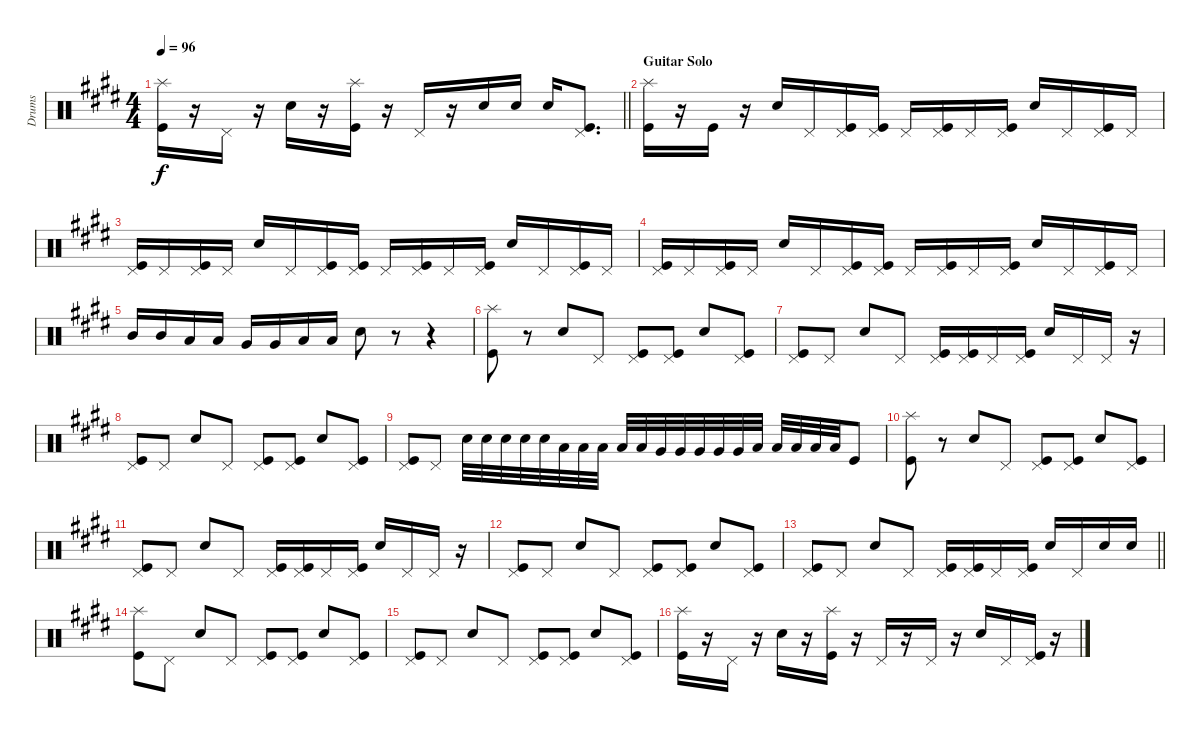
\track ("Drums" "Drums") {instrument percussion}
\staff {score}
\articulation defaults
\ts (4 4)
\tempo 96
\clef neutral
\barLineRight lightlight
\ks e
("Kick (hit)" "Splash (hit)").16{dy f} r.16 "Pedal Hi-Hat (hit)".16 r.16 "Electric Snare (hit)".16 r.16 ("Kick (hit)" "Splash (hit)").16 r.16 "Pedal Hi-Hat (hit)".16 r.16 "Electric Snare (hit)".16 "Electric Snare (hit)".16 "Electric Snare (hit)".16 ("Kick (hit)" "Pedal Hi-Hat (hit)").8{d} |
\section ("" "Guitar Solo")
("Kick (hit)" "Splash (hit)").16 r.16 "Kick (hit)".16 r.16 "Electric Snare (hit)".16 "Pedal Hi-Hat (hit)".16 ("Kick (hit)" "Pedal Hi-Hat (hit)").16 ("Kick (hit)" "Pedal Hi-Hat (hit)").16 "Pedal Hi-Hat (hit)".16 ("Kick (hit)" "Pedal Hi-Hat (hit)").16 "Pedal Hi-Hat (hit)".16 ("Kick (hit)" "Pedal Hi-Hat (hit)").16 "Electric Snare (hit)".16 "Pedal Hi-Hat (hit)".16 ("Kick (hit)" "Pedal Hi-Hat (hit)").16 "Pedal Hi-Hat (hit)".16 |
("Kick (hit)" "Pedal Hi-Hat (hit)").16 "Pedal Hi-Hat (hit)".16 ("Kick (hit)" "Pedal Hi-Hat (hit)").16 "Pedal Hi-Hat (hit)".16 "Electric Snare (hit)".16 "Pedal Hi-Hat (hit)".16 ("Kick (hit)" "Pedal Hi-Hat (hit)").16 ("Kick (hit)" "Pedal Hi-Hat (hit)").16 "Pedal Hi-Hat (hit)".16 ("Kick (hit)" "Pedal Hi-Hat (hit)").16 "Pedal Hi-Hat (hit)".16 ("Kick (hit)" "Pedal Hi-Hat (hit)").16 "Electric Snare (hit)".16 "Pedal Hi-Hat (hit)".16 ("Kick (hit)" "Pedal Hi-Hat (hit)").16 "Pedal Hi-Hat (hit)".16 |
("Kick (hit)" "Pedal Hi-Hat (hit)").16 "Pedal Hi-Hat (hit)".16 ("Kick (hit)" "Pedal Hi-Hat (hit)").16 "Pedal Hi-Hat (hit)".16 "Electric Snare (hit)".16 "Pedal Hi-Hat (hit)".16 ("Kick (hit)" "Pedal Hi-Hat (hit)").16 ("Kick (hit)" "Pedal Hi-Hat (hit)").16 "Pedal Hi-Hat (hit)".16 ("Kick (hit)" "Pedal Hi-Hat (hit)").16 "Pedal Hi-Hat (hit)".16 ("Kick (hit)" "Pedal Hi-Hat (hit)").16 "Electric Snare (hit)".16 "Pedal Hi-Hat (hit)".16 ("Kick (hit)" "Pedal Hi-Hat (hit)").16 "Pedal Hi-Hat (hit)".16 |
"Mid Tom (hit)".16 "Mid Tom (hit)".16 "Low Tom (hit)".16 "Low Tom (hit)".16 "Very Low Tom (hit)".16 "Very Low Tom (hit)".16 "Low Floor Tom (hit)".16 "Low Floor Tom (hit)".16 "Electric Snare (hit)".8 r.8 r.4 |
("Kick (hit)" "Splash (hit)").8 r.8 "Electric Snare (hit)".8 "Pedal Hi-Hat (hit)".8 ("Kick (hit)" "Pedal Hi-Hat (hit)").8 ("Kick (hit)" "Pedal Hi-Hat (hit)").8 "Electric Snare (hit)".8 ("Kick (hit)" "Pedal Hi-Hat (hit)").8 |
("Kick (hit)" "Pedal Hi-Hat (hit)").8 "Pedal Hi-Hat (hit)".8 "Electric Snare (hit)".8 "Pedal Hi-Hat (hit)".8 ("Kick (hit)" "Pedal Hi-Hat (hit)").16 ("Kick (hit)" "Pedal Hi-Hat (hit)").16 "Pedal Hi-Hat (hit)".16 ("Kick (hit)" "Pedal Hi-Hat (hit)").16 "Electric Snare (hit)".16 "Pedal Hi-Hat (hit)".16 "Pedal Hi-Hat (hit)".16 r.16 |
("Kick (hit)" "Pedal Hi-Hat (hit)").8 "Pedal Hi-Hat (hit)".8 "Electric Snare (hit)".8 "Pedal Hi-Hat (hit)".8 ("Kick (hit)" "Pedal Hi-Hat (hit)").8 ("Kick (hit)" "Pedal Hi-Hat (hit)").8 "Electric Snare (hit)".8 ("Kick (hit)" "Pedal Hi-Hat (hit)").8 |
("Kick (hit)" "Pedal Hi-Hat (hit)").8 "Pedal Hi-Hat (hit)".8 "Electric Snare (hit)".32 "Electric Snare (hit)".32 "Electric Snare (hit)".32 "Electric Snare (hit)".32 "Electric Snare (hit)".32 "Low Tom (hit)".32 "Low Tom (hit)".32 "Low Tom (hit)".32 "Low Tom (hit)".32 "Low Tom (hit)".32 "Very Low Tom (hit)".32 "Very Low Tom (hit)".32 "Very Low Tom (hit)".32 "Very Low Tom (hit)".32 "Very Low Tom (hit)".32 "Low Floor Tom (hit)".32 "Low Floor Tom (hit)".32 "Low Floor Tom (hit)".32 "Low Floor Tom (hit)".32 "Low Floor Tom (hit)".32 "Kick (hit)".8 |
("Kick (hit)" "Splash (hit)").8 r.8 "Electric Snare (hit)".8 "Pedal Hi-Hat (hit)".8 ("Kick (hit)" "Pedal Hi-Hat (hit)").8 ("Kick (hit)" "Pedal Hi-Hat (hit)").8 "Electric Snare (hit)".8 ("Kick (hit)" "Pedal Hi-Hat (hit)").8 |
("Kick (hit)" "Pedal Hi-Hat (hit)").8 "Pedal Hi-Hat (hit)".8 "Electric Snare (hit)".8 "Pedal Hi-Hat (hit)".8 ("Kick (hit)" "Pedal Hi-Hat (hit)").16 ("Kick (hit)" "Pedal Hi-Hat (hit)").16 "Pedal Hi-Hat (hit)".16 ("Kick (hit)" "Pedal Hi-Hat (hit)").16 "Electric Snare (hit)".16 "Pedal Hi-Hat (hit)".16 "Pedal Hi-Hat (hit)".16 r.16 |
("Kick (hit)" "Pedal Hi-Hat (hit)").8 "Pedal Hi-Hat (hit)".8 "Electric Snare (hit)".8 "Pedal Hi-Hat (hit)".8 ("Kick (hit)" "Pedal Hi-Hat (hit)").8 ("Kick (hit)" "Pedal Hi-Hat (hit)").8 "Electric Snare (hit)".8 ("Kick (hit)" "Pedal Hi-Hat (hit)").8 |
\barLineRight lightlight
("Kick (hit)" "Pedal Hi-Hat (hit)").8 "Pedal Hi-Hat (hit)".8 "Electric Snare (hit)".8 "Pedal Hi-Hat (hit)".8 ("Kick (hit)" "Pedal Hi-Hat (hit)").16 ("Kick (hit)" "Pedal Hi-Hat (hit)").16 "Pedal Hi-Hat (hit)".16 ("Kick (hit)" "Pedal Hi-Hat (hit)").16 "Electric Snare (hit)".16 "Pedal Hi-Hat (hit)".16 "Electric Snare (hit)".16 "Electric Snare (hit)".16 |
("Kick (hit)" "Splash (hit)").8 "Pedal Hi-Hat (hit)".8 "Electric Snare (hit)".8 "Pedal Hi-Hat (hit)".8 ("Kick (hit)" "Pedal Hi-Hat (hit)").8 ("Kick (hit)" "Pedal Hi-Hat (hit)").8 "Electric Snare (hit)".8 ("Kick (hit)" "Pedal Hi-Hat (hit)").8 |
("Kick (hit)" "Pedal Hi-Hat (hit)").8 "Pedal Hi-Hat (hit)".8 "Electric Snare (hit)".8 "Pedal Hi-Hat (hit)".8 ("Kick (hit)" "Pedal Hi-Hat (hit)").8 ("Kick (hit)" "Pedal Hi-Hat (hit)").8 "Electric Snare (hit)".8 ("Kick (hit)" "Pedal Hi-Hat (hit)").8 |
("Kick (hit)" "Splash (hit)").16 r.16 "Pedal Hi-Hat (hit)".16 r.16 "Electric Snare (hit)".16 r.16 ("Kick (hit)" "Splash (hit)").16 r.16 "Pedal Hi-Hat (hit)".16 r.16 "Pedal Hi-Hat (hit)".16 r.16 "Electric Snare (hit)".16 "Pedal Hi-Hat (hit)".16 ("Kick (hit)" "Pedal Hi-Hat (hit)").16 r.16
